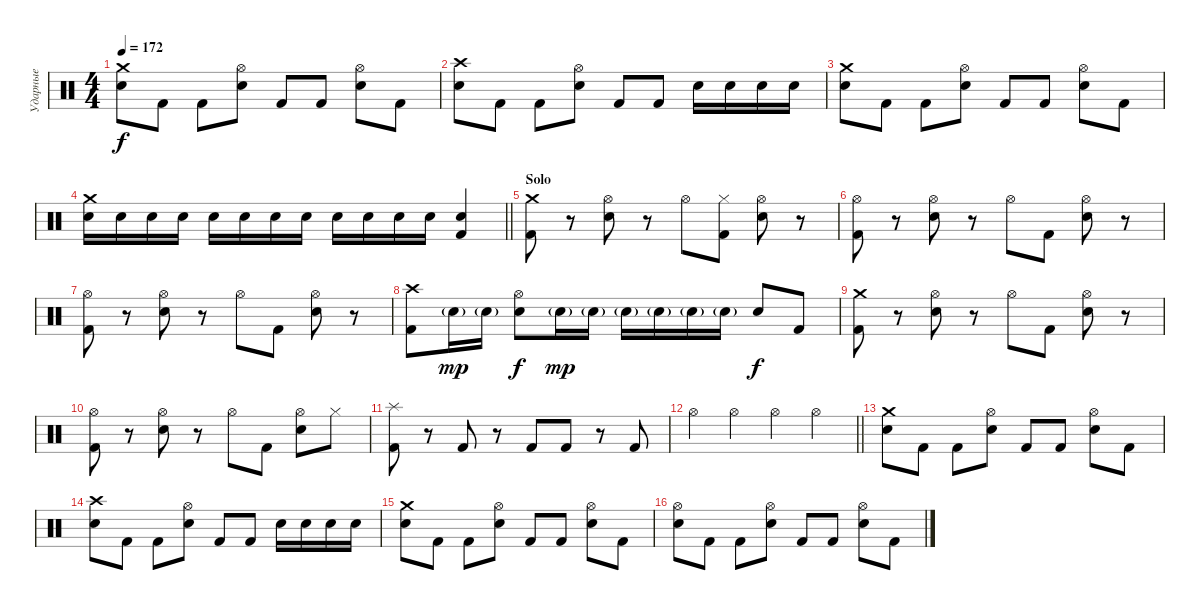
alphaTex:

\track ("Ударные" "Ударные") {instrument percussion}
\staff {score}
\articulation defaults
\ts (4 4)
\tempo 172
\clef neutral
\ks c
("Crash medium (hit)" "Electric Snare (hit)").8{dy f} "Kick (hit) 2".8 "Kick (hit) 2".8 ("Hi-Hat (open)" "Electric Snare (hit)").8 "Kick (hit) 2".8 "Kick (hit) 2".8 ("Hi-Hat (open)" "Electric Snare (hit)").8 "Kick (hit) 2".8 |
("Crash high (hit)" "Electric Snare (hit)").8 "Kick (hit) 2".8 "Kick (hit) 2".8 ("Hi-Hat (open)" "Electric Snare (hit)").8 "Kick (hit) 2".8 "Kick (hit) 2".8 "Electric Snare (hit)".16 "Electric Snare (hit)".16 "Electric Snare (hit)".16 "Electric Snare (hit)".16 |
("Crash medium (hit)" "Electric Snare (hit)").8 "Kick (hit) 2".8 "Kick (hit) 2".8 ("Hi-Hat (open)" "Electric Snare (hit)").8 "Kick (hit) 2".8 "Kick (hit) 2".8 ("Hi-Hat (open)" "Electric Snare (hit)").8 "Kick (hit) 2".8 |
\barLineRight lightlight
("Crash medium (hit)" "Electric Snare (hit)").16 "Electric Snare (hit)".16 "Electric Snare (hit)".16 "Electric Snare (hit)".16 "Electric Snare (hit)".16 "Electric Snare (hit)".16 "Electric Snare (hit)".16 "Electric Snare (hit)".16 "Electric Snare (hit)".16 "Electric Snare (hit)".16 "Electric Snare (hit)".16 "Electric Snare (hit)".16 ("Electric Snare (hit)" "Kick (hit) 2").4 |
\section ("" "Solo")
("Crash medium (hit)" "Kick (hit) 2").8 r.8 ("Hi-Hat (open)" "Electric Snare (hit)").8 r.8 "Hi-Hat (open)".8 ("Hi-Hat (closed)" "Kick (hit) 2").8 ("Hi-Hat (open)" "Electric Snare (hit)").8 r.8 |
("Hi-Hat (open)" "Kick (hit) 2").8 r.8 ("Hi-Hat (open)" "Electric Snare (hit)").8 r.8 "Hi-Hat (open)".8 "Kick (hit) 2".8 ("Hi-Hat (open)" "Electric Snare (hit)").8 r.8 |
("Hi-Hat (open)" "Kick (hit) 2").8 r.8 ("Hi-Hat (open)" "Electric Snare (hit)").8 r.8 "Hi-Hat (open)".8 "Kick (hit) 2".8 ("Hi-Hat (open)" "Electric Snare (hit)").8 r.8 |
("Crash high (hit)" "Kick (hit) 2").8 "Electric Snare (hit)"{g}.16{dy mp} "Electric Snare (hit)"{g}.16 ("Hi-Hat (open)" "Electric Snare (hit)").8{dy f} "Electric Snare (hit)"{g}.16{dy mp} "Electric Snare (hit)"{g}.16 "Electric Snare (hit)"{g}.16 "Electric Snare (hit)"{g}.16 "Electric Snare (hit)"{g}.16 "Electric Snare (hit)"{g}.16 "Electric Snare (hit)".8{dy f} "Kick (hit) 2".8 |
("Crash medium (hit)" "Kick (hit) 2").8 r.8 ("Hi-Hat (open)" "Electric Snare (hit)").8 r.8 "Hi-Hat (open)".8 "Kick (hit) 2".8 ("Hi-Hat (open)" "Electric Snare (hit)").8 r.8 |
("Hi-Hat (open)" "Kick (hit) 2").8 r.8 ("Hi-Hat (open)" "Electric Snare (hit)").8 r.8 "Hi-Hat (open)".8 "Kick (hit) 2".8 ("Hi-Hat (open)" "Electric Snare (hit)").8 "Hi-Hat (closed)".8 |
("Splash (hit)" "Kick (hit) 2").8 r.8 "Kick (hit) 2".8 r.8 "Kick (hit) 2".8 "Kick (hit) 2".8 r.8 "Kick (hit) 2".8 |
\barLineRight lightlight "Hi-Hat (open)".4 "Hi-Hat (open)".4 "Hi-Hat (open)".4 "Hi-Hat (open)".4
|
("Crash medium (hit)" "Electric Snare (hit)").8 "Kick (hit) 2".8 "Kick (hit) 2".8 ("Hi-Hat (open)" "Electric Snare (hit)").8 "Kick (hit) 2".8 "Kick (hit) 2".8 ("Hi-Hat (open)" "Electric Snare (hit)").8 "Kick (hit) 2".8 |
("Crash high (hit)" "Electric Snare (hit)").8 "Kick (hit) 2".8 "Kick (hit) 2".8 ("Hi-Hat (open)" "Electric Snare (hit)").8 "Kick (hit) 2".8 "Kick (hit) 2".8 "Electric Snare (hit)".16 "Electric Snare (hit)".16 "Electric Snare (hit)".16 "Electric Snare (hit)".16 |
("Crash medium (hit)" "Electric Snare (hit)").8 "Kick (hit) 2".8 "Kick (hit) 2".8 ("Hi-Hat (open)" "Electric Snare (hit)").8 "Kick (hit) 2".8 "Kick (hit) 2".8 ("Hi-Hat (open)" "Electric Snare (hit)").8 "Kick (hit) 2".8 |
("Hi-Hat (open)" "Electric Snare (hit)").8 "Kick (hit) 2".8 "Kick (hit) 2".8 ("Hi-Hat (open)" "Electric Snare (hit)").8 "Kick (hit) 2".8 "Kick (hit) 2".8 ("Hi-Hat (open)" "Electric Snare (hit)").8 "Kick (hit) 2".8
